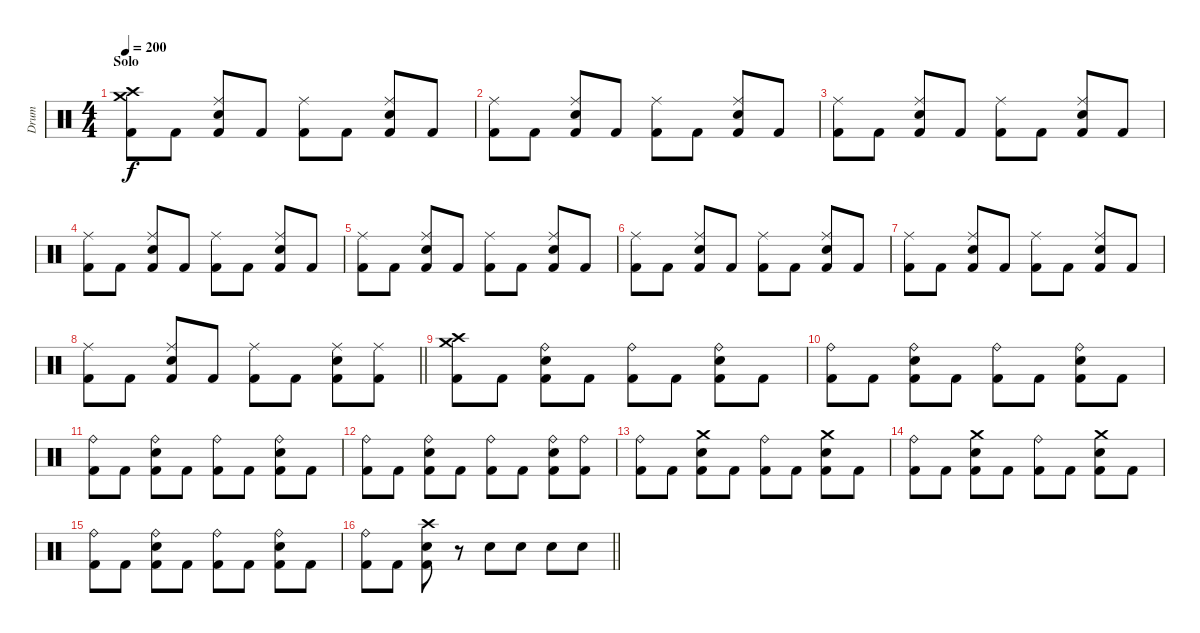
\track ("Drum" "Drum") {instrument percussion}
\staff {score}
\articulation defaults
\ts (4 4)
\section ("" "Solo")
\tempo 200
\clef neutral
\ks c
("Crash high (hit)" "Crash medium (hit)" "Kick (hit) 2").8{dy f} "Kick (hit) 2".8 ("Ride (middle)" "Snare (hit) 2" "Kick (hit) 2").8 "Kick (hit) 2".8 ("Ride (middle)" "Kick (hit) 2").8 "Kick (hit) 2".8 ("Ride (middle)" "Snare (hit) 2" "Kick (hit) 2").8 "Kick (hit) 2".8 |
("Ride (middle)" "Kick (hit) 2").8 "Kick (hit) 2".8 ("Ride (middle)" "Snare (hit) 2" "Kick (hit) 2").8 "Kick (hit) 2".8 ("Ride (middle)" "Kick (hit) 2").8 "Kick (hit) 2".8 ("Ride (middle)" "Snare (hit) 2" "Kick (hit) 2").8 "Kick (hit) 2".8 |
("Ride (middle)" "Kick (hit) 2").8 "Kick (hit) 2".8 ("Ride (middle)" "Snare (hit) 2" "Kick (hit) 2").8 "Kick (hit) 2".8 ("Ride (middle)" "Kick (hit) 2").8 "Kick (hit) 2".8 ("Ride (middle)" "Snare (hit) 2" "Kick (hit) 2").8 "Kick (hit) 2".8 |
("Ride (middle)" "Kick (hit) 2").8 "Kick (hit) 2".8 ("Ride (middle)" "Snare (hit) 2" "Kick (hit) 2").8 "Kick (hit) 2".8 ("Ride (middle)" "Kick (hit) 2").8 "Kick (hit) 2".8 ("Ride (middle)" "Snare (hit) 2" "Kick (hit) 2").8 "Kick (hit) 2".8 |
("Ride (middle)" "Kick (hit) 2").8 "Kick (hit) 2".8 ("Ride (middle)" "Snare (hit) 2" "Kick (hit) 2").8 "Kick (hit) 2".8 ("Ride (middle)" "Kick (hit) 2").8 "Kick (hit) 2".8 ("Ride (middle)" "Snare (hit) 2" "Kick (hit) 2").8 "Kick (hit) 2".8 |
("Ride (middle)" "Kick (hit) 2").8 "Kick (hit) 2".8 ("Ride (middle)" "Snare (hit) 2" "Kick (hit) 2").8 "Kick (hit) 2".8 ("Ride (middle)" "Kick (hit) 2").8 "Kick (hit) 2".8 ("Ride (middle)" "Snare (hit) 2" "Kick (hit) 2").8 "Kick (hit) 2".8 |
("Ride (middle)" "Kick (hit) 2").8 "Kick (hit) 2".8 ("Ride (middle)" "Snare (hit) 2" "Kick (hit) 2").8 "Kick (hit) 2".8 ("Ride (middle)" "Kick (hit) 2").8 "Kick (hit) 2".8 ("Ride (middle)" "Snare (hit) 2" "Kick (hit) 2").8 "Kick (hit) 2".8 |
\barLineRight lightlight
("Ride (middle)" "Kick (hit) 2").8 "Kick (hit) 2".8 ("Ride (middle)" "Snare (hit) 2" "Kick (hit) 2").8 "Kick (hit) 2".8 ("Ride (middle)" "Kick (hit) 2").8 "Kick (hit) 2".8 ("Ride (middle)" "Snare (hit) 2" "Kick (hit) 2").8 ("Ride (middle)" "Kick (hit) 2").8 |
("Crash high (hit)" "Crash medium (hit)" "Kick (hit) 2").8 "Kick (hit) 2".8 ("Ride (bell)" "Snare (hit) 2" "Kick (hit) 2").8 "Kick (hit) 2".8 ("Ride (bell)" "Kick (hit) 2").8 "Kick (hit) 2".8 ("Ride (bell)" "Snare (hit) 2" "Kick (hit) 2").8 "Kick (hit) 2".8 |
("Ride (bell)" "Kick (hit) 2").8 "Kick (hit) 2".8 ("Ride (bell)" "Snare (hit) 2" "Kick (hit) 2").8 "Kick (hit) 2".8 ("Ride (bell)" "Kick (hit) 2").8 "Kick (hit) 2".8 ("Ride (bell)" "Snare (hit) 2" "Kick (hit) 2").8 "Kick (hit) 2".8 |
("Ride (bell)" "Kick (hit) 2").8 "Kick (hit) 2".8 ("Ride (bell)" "Snare (hit) 2" "Kick (hit) 2").8 "Kick (hit) 2".8 ("Ride (bell)" "Kick (hit) 2").8 "Kick (hit) 2".8 ("Ride (bell)" "Snare (hit) 2" "Kick (hit) 2").8 "Kick (hit) 2".8 |
("Ride (bell)" "Kick (hit) 2").8 "Kick (hit) 2".8 ("Ride (bell)" "Snare (hit) 2" "Kick (hit) 2").8 "Kick (hit) 2".8 ("Ride (bell)" "Kick (hit) 2").8 "Kick (hit) 2".8 ("Ride (bell)" "Snare (hit) 2" "Kick (hit) 2").8 ("Ride (bell)" "Kick (hit) 2").8 |
("Ride (bell)" "Kick (hit) 2").8 "Kick (hit) 2".8 ("Crash medium (hit)" "Snare (hit) 2" "Kick (hit) 2").8 "Kick (hit) 2".8 ("Ride (bell)" "Kick (hit) 2").8 "Kick (hit) 2".8 ("Crash medium (hit)" "Snare (hit) 2" "Kick (hit) 2").8 "Kick (hit) 2".8 |
("Ride (bell)" "Kick (hit) 2").8 "Kick (hit) 2".8 ("Crash medium (hit)" "Snare (hit) 2" "Kick (hit) 2").8 "Kick (hit) 2".8 ("Ride (bell)" "Kick (hit) 2").8 "Kick (hit) 2".8 ("Crash medium (hit)" "Snare (hit) 2" "Kick (hit) 2").8 "Kick (hit) 2".8 |
("Ride (bell)" "Kick (hit) 2").8 "Kick (hit) 2".8 ("Ride (bell)" "Snare (hit) 2" "Kick (hit) 2").8 "Kick (hit) 2".8 ("Ride (bell)" "Kick (hit) 2").8 "Kick (hit) 2".8 ("Ride (bell)" "Snare (hit) 2" "Kick (hit) 2").8 "Kick (hit) 2".8 |
\barLineRight lightlight
("Ride (bell)" "Kick (hit) 2").8 "Kick (hit) 2".8 ("Crash high (hit)" "Snare (hit) 2" "Kick (hit) 2").8 r.8 "Snare (hit) 2".8 "Snare (hit) 2".8 "Snare (hit) 2".8 "Snare (hit) 2".8
